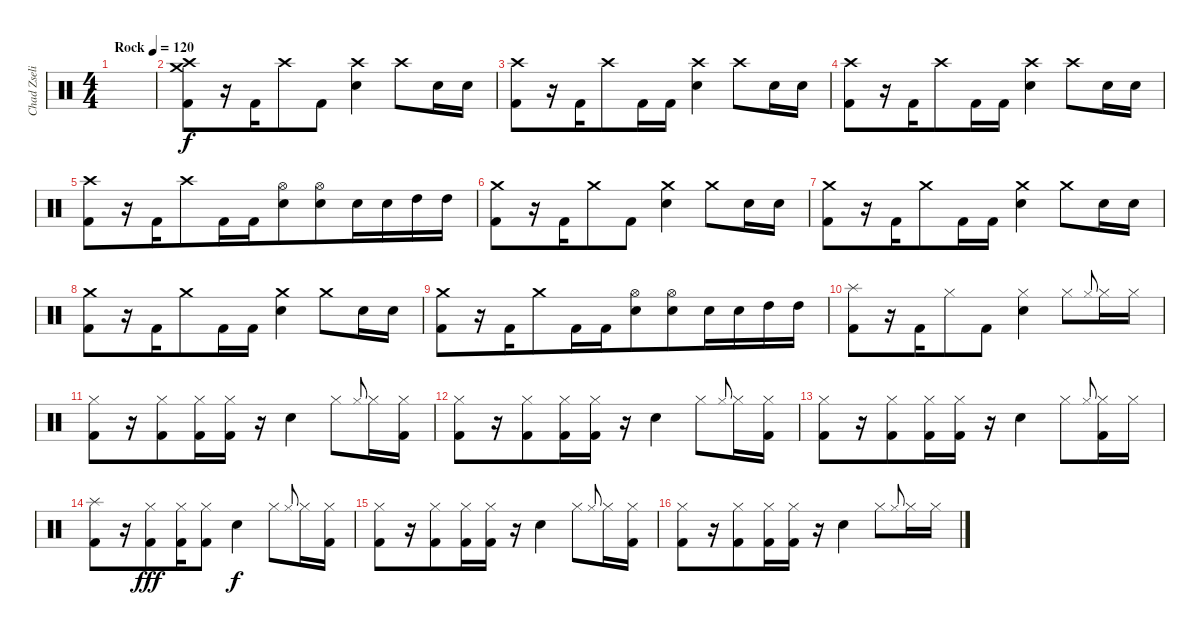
\track ("Chad Zseliga (Drums)" "Chad Zseli") {instrument percussion}
\staff {score}
\articulation defaults
\ts (4 4)
\tempo (120 "Rock")
\clef neutral
\ks c
|
("Crash high (hit)" "Crash medium (hit)" "Kick (hit) 2").8 r.16 "Kick (hit) 2".16{beam merge} "Crash high (hit)".8 "Kick (hit) 2".8 ("Crash high (hit)" "Snare (hit) 2").4 "Crash high (hit)".8 "Snare (hit) 2".16 "Snare (hit) 2".16 |
("Crash high (hit)" "Kick (hit) 2").8 r.16 "Kick (hit) 2".16{beam merge} "Crash high (hit)".8 "Kick (hit) 2".16 "Kick (hit) 2".16 ("Crash high (hit)" "Snare (hit) 2").4 "Crash high (hit)".8 "Snare (hit) 2".16 "Snare (hit) 2".16 |
("Crash high (hit)" "Kick (hit) 2").8 r.16 "Kick (hit) 2".16{beam merge} "Crash high (hit)".8 "Kick (hit) 2".16 "Kick (hit) 2".16 ("Crash high (hit)" "Snare (hit) 2").4 "Crash high (hit)".8 "Snare (hit) 2".16 "Snare (hit) 2".16 |
("Crash high (hit)" "Kick (hit) 2").8 r.16 "Kick (hit) 2".16{beam merge} "Crash high (hit)".8 "Kick (hit) 2".16 "Kick (hit) 2".16{beam merge} ("Hi-Hat (open)" "Snare (hit) 2").8 ("Hi-Hat (open)" "Snare (hit) 2").8{beam merge} "Snare (hit) 2".16 "Snare (hit) 2".16 "High Tom (hit)".16 "High Tom (hit)".16 |
("Crash medium (hit)" "Kick (hit) 2").8 r.16 "Kick (hit) 2".16{beam merge} "Crash medium (hit)".8 "Kick (hit) 2".8 ("Crash medium (hit)" "Snare (hit) 2").4 "Crash medium (hit)".8 "Snare (hit) 2".16 "Snare (hit) 2".16 |
("Crash medium (hit)" "Kick (hit) 2").8 r.16 "Kick (hit) 2".16{beam merge} "Crash medium (hit)".8 "Kick (hit) 2".16 "Kick (hit) 2".16 ("Crash medium (hit)" "Snare (hit) 2").4 "Crash medium (hit)".8 "Snare (hit) 2".16 "Snare (hit) 2".16 |
("Crash medium (hit)" "Kick (hit) 2").8 r.16 "Kick (hit) 2".16{beam merge} "Crash medium (hit)".8 "Kick (hit) 2".16 "Kick (hit) 2".16 ("Crash medium (hit)" "Snare (hit) 2").4 "Crash medium (hit)".8 "Snare (hit) 2".16 "Snare (hit) 2".16 |
("Crash medium (hit)" "Kick (hit) 2").8 r.16 "Kick (hit) 2".16{beam merge} "Crash medium (hit)".8 "Kick (hit) 2".16 "Kick (hit) 2".16{beam merge} ("Hi-Hat (open)" "Snare (hit) 2").8 ("Hi-Hat (open)" "Snare (hit) 2").8{beam merge} "Snare (hit) 2".16 "Snare (hit) 2".16 "High Tom (hit)".16 "High Tom (hit)".16 |
("Splash (hit)" "Kick (hit) 2").8 r.16 "Kick (hit) 2".16{beam merge} "Hi-Hat (closed)".8 "Kick (hit) 2".8 ("Hi-Hat (closed)" "Snare (hit) 2").4 "Hi-Hat (closed)".8 "Hi-Hat (closed)".8{gr onbeat} "Hi-Hat (closed)".16 "Hi-Hat (closed)".16 |
("Hi-Hat (closed)" "Kick (hit) 2").8 r.16 ("Hi-Hat (closed)" "Kick (hit) 2").8{beam merge} ("Hi-Hat (closed)" "Kick (hit) 2").16 ("Hi-Hat (closed)" "Kick (hit) 2").16 r.16 "Snare (hit) 2".4 "Hi-Hat (closed)".8 "Hi-Hat (closed)".8{gr onbeat} "Hi-Hat (closed)".16 ("Hi-Hat (closed)" "Kick (hit) 2").16 |
("Hi-Hat (closed)" "Kick (hit) 2").8 r.16 ("Hi-Hat (closed)" "Kick (hit) 2").8{beam merge} ("Hi-Hat (closed)" "Kick (hit) 2").16 ("Hi-Hat (closed)" "Kick (hit) 2").16 r.16 "Snare (hit) 2".4 "Hi-Hat (closed)".8 "Hi-Hat (closed)".8{gr onbeat} "Hi-Hat (closed)".16 ("Hi-Hat (closed)" "Kick (hit) 2").16 |
("Hi-Hat (closed)" "Kick (hit) 2").8 r.16 ("Hi-Hat (closed)" "Kick (hit) 2").8{beam merge} ("Hi-Hat (closed)" "Kick (hit) 2").16 ("Hi-Hat (closed)" "Kick (hit) 2").16 r.16 "Snare (hit) 2".4 "Hi-Hat (closed)".8 "Hi-Hat (closed)".8{gr onbeat} ("Hi-Hat (closed)" "Kick (hit) 2").16 "Hi-Hat (closed)".16 |
("Splash (hit)" "Kick (hit) 2").8 r.16 ("Hi-Hat (closed)" "Kick (hit) 2").8{dy fff beam merge} ("Hi-Hat (closed)" "Kick (hit) 2").16 ("Hi-Hat (closed)" "Kick (hit) 2").8 "Snare (hit) 2".4{dy f} "Hi-Hat (closed)".8 "Hi-Hat (closed)".8{gr onbeat} "Hi-Hat (closed)".16 ("Hi-Hat (closed)" "Kick (hit) 2").16 |
("Hi-Hat (closed)" "Kick (hit) 2").8 r.16 ("Hi-Hat (closed)" "Kick (hit) 2").8{beam merge} ("Hi-Hat (closed)" "Kick (hit) 2").16 ("Hi-Hat (closed)" "Kick (hit) 2").16 r.16 "Snare (hit) 2".4 "Hi-Hat (closed)".8 "Hi-Hat (closed)".8{gr onbeat} "Hi-Hat (closed)".16 ("Hi-Hat (closed)" "Kick (hit) 2").16 |
("Hi-Hat (closed)" "Kick (hit) 2").8 r.16 ("Hi-Hat (closed)" "Kick (hit) 2").8{beam merge} ("Hi-Hat (closed)" "Kick (hit) 2").16 ("Hi-Hat (closed)" "Kick (hit) 2").16 r.16 "Snare (hit) 2".4 "Hi-Hat (closed)".8 "Hi-Hat (closed)".8{gr onbeat} "Hi-Hat (closed)".16 "Hi-Hat (closed)".16
